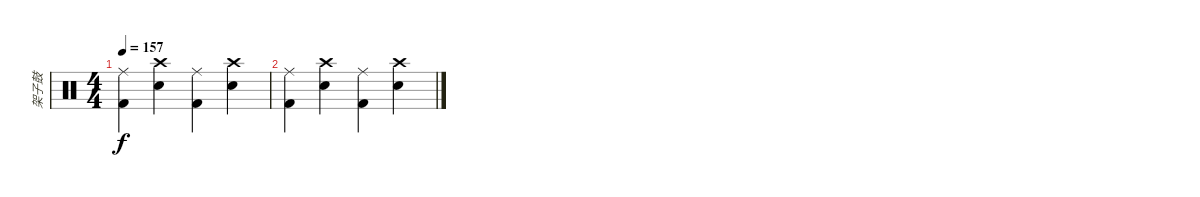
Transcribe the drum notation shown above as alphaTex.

\track ("架子鼓" "架子鼓") {instrument percussion}
\staff {score}
\articulation defaults
\ts (4 4)
\tempo 157
\clef neutral
\ks c
("Ride (middle)" "Kick (hit) 2").4{dy f volume 0} ("Crash high (hit)" "Snare (hit) 2").4 ("Ride (middle)" "Kick (hit) 2").4 ("Crash high (hit)" "Snare (hit) 2").4 |
("Ride (middle)" "Kick (hit) 2").4 ("Crash high (hit)" "Snare (hit) 2").4 ("Ride (middle)" "Kick (hit) 2").4 ("Crash high (hit)" "Snare (hit) 2").4
